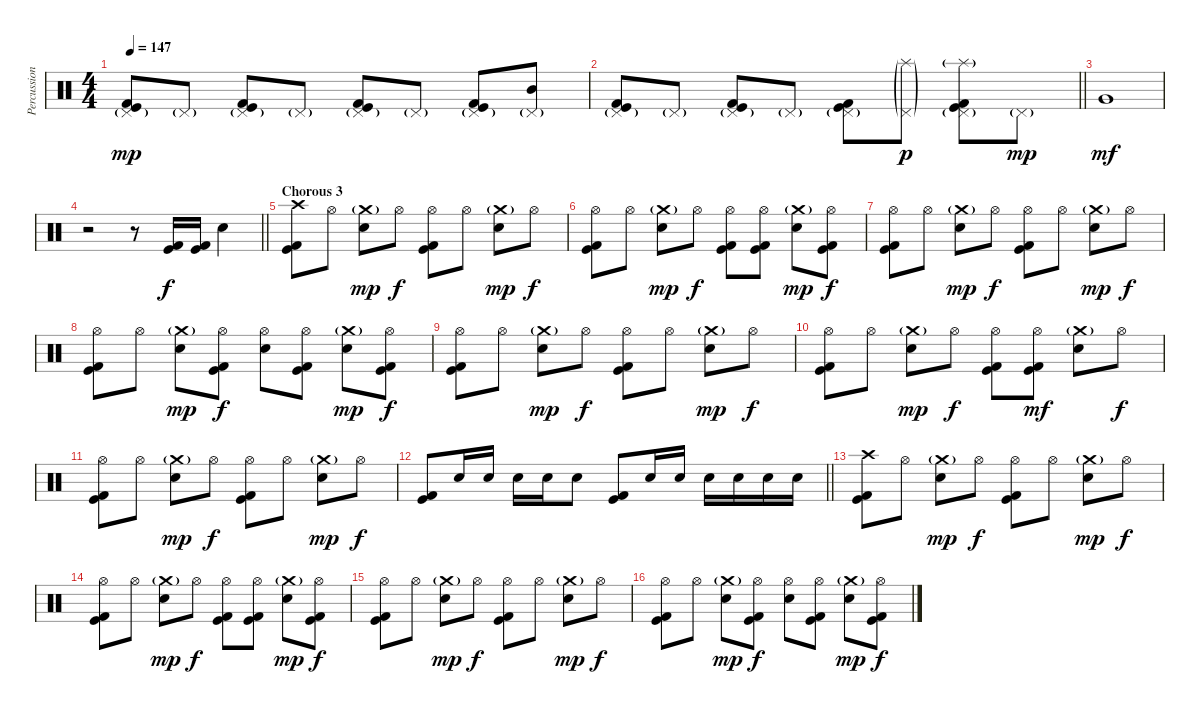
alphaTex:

\track ("Percussion" "Percussion") {instrument percussion}
\staff {score}
\articulation defaults
\ts (4 4)
\tempo 147
\clef neutral
\ks c
("Pedal Hi-Hat (hit)"{g} "Kick (hit)" "Kick (hit) 2").8{dy mp} "Pedal Hi-Hat (hit)"{g}.8 ("Pedal Hi-Hat (hit)"{g} "Kick (hit)" "Kick (hit) 2").8 "Pedal Hi-Hat (hit)"{g}.8 ("Pedal Hi-Hat (hit)"{g} "Kick (hit)" "Kick (hit) 2").8 "Pedal Hi-Hat (hit)"{g}.8 ("Pedal Hi-Hat (hit)"{g} "Kick (hit)" "Kick (hit) 2").8 ("Pedal Hi-Hat (hit)"{g} "Mid Tom (hit)").8 |
\barLineRight lightlight
("Pedal Hi-Hat (hit)"{g} "Kick (hit)" "Kick (hit) 2").8 "Pedal Hi-Hat (hit)"{g}.8 ("Pedal Hi-Hat (hit)"{g} "Kick (hit)" "Kick (hit) 2").8 "Pedal Hi-Hat (hit)"{g}.8 ("Pedal Hi-Hat (hit)"{g} "Kick (hit)" "Kick (hit) 2").8 ("Pedal Hi-Hat (hit)"{g} "Splash (hit)"{g}).8{dy p} ("Pedal Hi-Hat (hit)"{g} "Splash (hit)"{g} "Kick (hit)" "Kick (hit) 2").8 "Pedal Hi-Hat (hit)"{g}.8{dy mp} |
"Very Low Tom (hit)".1{dy mf} |
\barLineRight lightlight
r.2 r.8 ("Kick (hit)" "Kick (hit) 2").16{dy f} ("Kick (hit)" "Kick (hit) 2").16 "Electric Snare (hit)".4 |
\section ("" "Chorous 3")
("Crash high (hit)" "Kick (hit)" "Kick (hit) 2").8 "Hi-Hat (open)".8 ("Crash medium (hit)"{g} "Electric Snare (hit)").8{dy mp} "Hi-Hat (open)".8{dy f} ("Hi-Hat (open)" "Kick (hit)" "Kick (hit) 2").8 "Hi-Hat (open)".8 ("Crash medium (hit)"{g} "Electric Snare (hit)").8{dy mp} "Hi-Hat (open)".8{dy f} |
("Hi-Hat (open)" "Kick (hit)" "Kick (hit) 2").8 "Hi-Hat (open)".8 ("Crash medium (hit)"{g} "Electric Snare (hit)").8{dy mp} "Hi-Hat (open)".8{dy f} ("Hi-Hat (open)" "Kick (hit)" "Kick (hit) 2").8 ("Hi-Hat (open)" "Kick (hit)" "Kick (hit) 2").8 ("Crash medium (hit)"{g} "Electric Snare (hit)").8{dy mp} ("Hi-Hat (open)" "Kick (hit)" "Kick (hit) 2").8{dy f} |
("Hi-Hat (open)" "Kick (hit)" "Kick (hit) 2").8 "Hi-Hat (open)".8 ("Crash medium (hit)"{g} "Electric Snare (hit)").8{dy mp} "Hi-Hat (open)".8{dy f} ("Hi-Hat (open)" "Kick (hit)" "Kick (hit) 2").8 "Hi-Hat (open)".8 ("Crash medium (hit)"{g} "Electric Snare (hit)").8{dy mp} "Hi-Hat (open)".8{dy f} |
("Hi-Hat (open)" "Kick (hit)" "Kick (hit) 2").8 "Hi-Hat (open)".8 ("Crash medium (hit)"{g} "Electric Snare (hit)").8{dy mp} ("Hi-Hat (open)" "Kick (hit)" "Kick (hit) 2").8{dy f} ("Hi-Hat (open)" "Electric Snare (hit)").8 ("Hi-Hat (open)" "Kick (hit)" "Kick (hit) 2").8 ("Crash medium (hit)"{g} "Electric Snare (hit)").8{dy mp} ("Hi-Hat (open)" "Kick (hit)" "Kick (hit) 2").8{dy f} |
("Hi-Hat (open)" "Kick (hit)" "Kick (hit) 2").8 "Hi-Hat (open)".8 ("Crash medium (hit)"{g} "Electric Snare (hit)").8{dy mp} "Hi-Hat (open)".8{dy f} ("Hi-Hat (open)" "Kick (hit)" "Kick (hit) 2").8 "Hi-Hat (open)".8 ("Crash medium (hit)"{g} "Electric Snare (hit)").8{dy mp} "Hi-Hat (open)".8{dy f} |
("Hi-Hat (open)" "Kick (hit)" "Kick (hit) 2").8 "Hi-Hat (open)".8 ("Crash medium (hit)"{g} "Electric Snare (hit)").8{dy mp} "Hi-Hat (open)".8{dy f} ("Hi-Hat (open)" "Kick (hit)" "Kick (hit) 2").8 ("Hi-Hat (open)" "Kick (hit)" "Kick (hit) 2").8{dy mf} ("Crash medium (hit)"{g} "Electric Snare (hit)").8 "Hi-Hat (open)".8{dy f} |
("Hi-Hat (open)" "Kick (hit)" "Kick (hit) 2").8 "Hi-Hat (open)".8 ("Crash medium (hit)"{g} "Electric Snare (hit)").8{dy mp} "Hi-Hat (open)".8{dy f} ("Hi-Hat (open)" "Kick (hit)" "Kick (hit) 2").8 "Hi-Hat (open)".8 ("Crash medium (hit)"{g} "Electric Snare (hit)").8{dy mp} "Hi-Hat (open)".8{dy f} |
\barLineRight lightlight
("Kick (hit)" "Kick (hit) 2").8 "Electric Snare (hit)".16 "Electric Snare (hit)".16 "Electric Snare (hit)".16 "Electric Snare (hit)".16 "Electric Snare (hit)".8 ("Kick (hit)" "Kick (hit) 2").8 "Electric Snare (hit)".16 "Electric Snare (hit)".16 "Electric Snare (hit)".16 "Electric Snare (hit)".16 "Electric Snare (hit)".16 "Electric Snare (hit)".16 |
\section ("" "")
("Crash high (hit)" "Kick (hit)" "Kick (hit) 2").8 "Hi-Hat (open)".8 ("Crash medium (hit)"{g} "Electric Snare (hit)").8{dy mp} "Hi-Hat (open)".8{dy f} ("Hi-Hat (open)" "Kick (hit)" "Kick (hit) 2").8 "Hi-Hat (open)".8 ("Crash medium (hit)"{g} "Electric Snare (hit)").8{dy mp} "Hi-Hat (open)".8{dy f} |
("Hi-Hat (open)" "Kick (hit)" "Kick (hit) 2").8 "Hi-Hat (open)".8 ("Crash medium (hit)"{g} "Electric Snare (hit)").8{dy mp} "Hi-Hat (open)".8{dy f} ("Hi-Hat (open)" "Kick (hit)" "Kick (hit) 2").8 ("Hi-Hat (open)" "Kick (hit)" "Kick (hit) 2").8 ("Crash medium (hit)"{g} "Electric Snare (hit)").8{dy mp} ("Hi-Hat (open)" "Kick (hit)" "Kick (hit) 2").8{dy f} |
("Hi-Hat (open)" "Kick (hit)" "Kick (hit) 2").8 "Hi-Hat (open)".8 ("Crash medium (hit)"{g} "Electric Snare (hit)").8{dy mp} "Hi-Hat (open)".8{dy f} ("Hi-Hat (open)" "Kick (hit)" "Kick (hit) 2").8 "Hi-Hat (open)".8 ("Crash medium (hit)"{g} "Electric Snare (hit)").8{dy mp} "Hi-Hat (open)".8{dy f} |
("Hi-Hat (open)" "Kick (hit)" "Kick (hit) 2").8 "Hi-Hat (open)".8 ("Crash medium (hit)"{g} "Electric Snare (hit)").8{dy mp} ("Hi-Hat (open)" "Kick (hit)" "Kick (hit) 2").8{dy f} ("Hi-Hat (open)" "Electric Snare (hit)").8 ("Hi-Hat (open)" "Kick (hit)" "Kick (hit) 2").8 ("Crash medium (hit)"{g} "Electric Snare (hit)").8{dy mp} ("Hi-Hat (open)" "Kick (hit)" "Kick (hit) 2").8{dy f}
